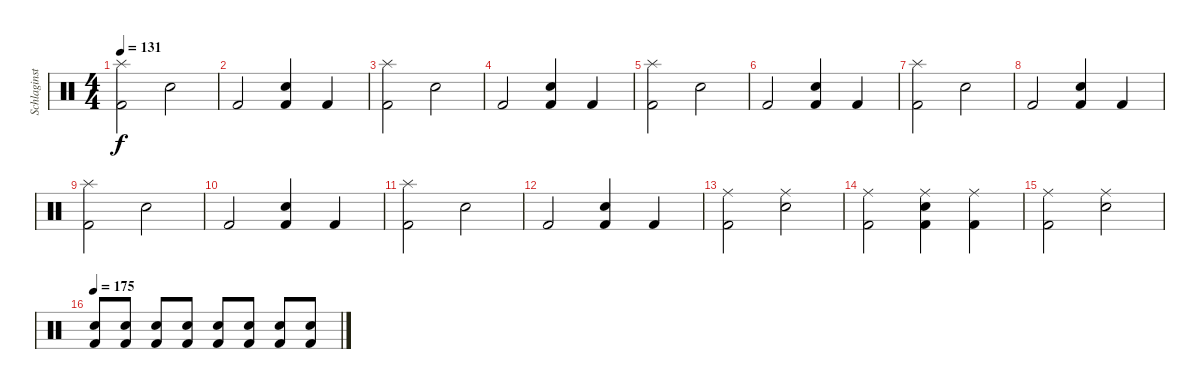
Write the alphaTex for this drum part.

\track ("Schlaginstrumente - Auswahl" "Schlaginst") {instrument percussion}
\staff {score}
\articulation defaults
\ts (4 4)
\tempo 131
\clef neutral
\ks c
("Splash (hit)" "Kick (hit) 2").2{dy f} "Snare (hit) 2".2 |
"Kick (hit) 2".2 ("Kick (hit) 2" "Snare (hit) 2").4 "Kick (hit) 2".4 |
("Splash (hit)" "Kick (hit) 2").2 "Snare (hit) 2".2 |
"Kick (hit) 2".2 ("Kick (hit) 2" "Snare (hit) 2").4 "Kick (hit) 2".4 |
("Splash (hit)" "Kick (hit) 2").2 "Snare (hit) 2".2 |
"Kick (hit) 2".2 ("Kick (hit) 2" "Snare (hit) 2").4 "Kick (hit) 2".4 |
("Splash (hit)" "Kick (hit) 2").2 "Snare (hit) 2".2 |
"Kick (hit) 2".2 ("Kick (hit) 2" "Snare (hit) 2").4 "Kick (hit) 2".4 |
("Splash (hit)" "Kick (hit) 2").2 "Snare (hit) 2".2 |
"Kick (hit) 2".2 ("Kick (hit) 2" "Snare (hit) 2").4 "Kick (hit) 2".4 |
("Splash (hit)" "Kick (hit) 2").2 "Snare (hit) 2".2 |
"Kick (hit) 2".2 ("Kick (hit) 2" "Snare (hit) 2").4 "Kick (hit) 2".4 |
("Ride (middle)" "Kick (hit) 2").2 ("Ride (middle)" "Snare (hit) 2").2 |
("Ride (middle)" "Kick (hit) 2").2 ("Ride (middle)" "Kick (hit) 2" "Snare (hit) 2").4 ("Ride (middle)" "Kick (hit) 2").4 |
("Ride (middle)" "Kick (hit) 2").2 ("Ride (middle)" "Snare (hit) 2").2 |
\tempo 175
("Kick (hit) 2" "Snare (hit) 2").8 ("Kick (hit) 2" "Snare (hit) 2").8 ("Kick (hit) 2" "Snare (hit) 2").8 ("Kick (hit) 2" "Snare (hit) 2").8 ("Kick (hit) 2" "Snare (hit) 2").8 ("Kick (hit) 2" "Snare (hit) 2").8 ("Kick (hit) 2" "Snare (hit) 2").8 ("Kick (hit) 2" "Snare (hit) 2").8
